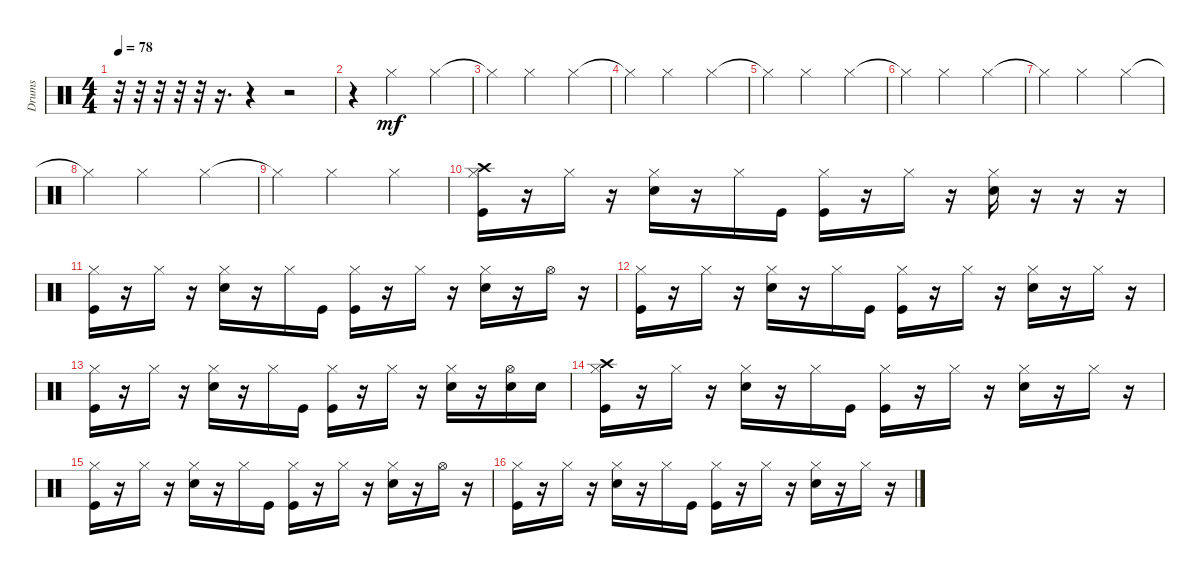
\track ("Drums               " "Drums     ") {instrument percussion}
\staff {score}
\articulation defaults
\ts (4 4)
\tempo 78
\clef neutral
\ks c
r.32{dy mf} r.32 r.32 r.32 r.32 r.16{d} r.4 r.2 |
r.4 "Hi-Hat (closed)".2 "Hi-Hat (closed)".4 |
"Hi-Hat (closed)"{t}.4 "Hi-Hat (closed)".2 "Hi-Hat (closed)".4 |
"Hi-Hat (closed)"{t}.4 "Hi-Hat (closed)".2 "Hi-Hat (closed)".4 |
"Hi-Hat (closed)"{t}.4 "Hi-Hat (closed)".2 "Hi-Hat (closed)".4 |
"Hi-Hat (closed)"{t}.4 "Hi-Hat (closed)".2 "Hi-Hat (closed)".4 |
"Hi-Hat (closed)"{t}.4 "Hi-Hat (closed)".2 "Hi-Hat (closed)".4 |
"Hi-Hat (closed)"{t}.4 "Hi-Hat (closed)".2 "Hi-Hat (closed)".4 |
"Hi-Hat (closed)"{t}.4 "Hi-Hat (closed)".2 "Hi-Hat (closed)".4 |
("Kick (hit)" "Hi-Hat (closed)" "Crash high (hit)").16 r.16 "Hi-Hat (closed)".16 r.16 ("Snare (hit) 2" "Hi-Hat (closed)").16 r.16 "Hi-Hat (closed)".16 "Kick (hit)".16 ("Kick (hit)" "Hi-Hat (closed)").16 r.16 "Hi-Hat (closed)".16 r.16 ("Snare (hit) 2" "Hi-Hat (closed)").16 r.16 r.16 r.16 |
("Kick (hit)" "Hi-Hat (closed)").16 r.16 "Hi-Hat (closed)".16 r.16 ("Snare (hit) 2" "Hi-Hat (closed)").16 r.16 "Hi-Hat (closed)".16 "Kick (hit)".16 ("Kick (hit)" "Hi-Hat (closed)").16 r.16 "Hi-Hat (closed)".16 r.16 ("Snare (hit) 2" "Hi-Hat (closed)").16 r.16 "Hi-Hat (open)".16 r.16 |
("Kick (hit)" "Hi-Hat (closed)").16 r.16 "Hi-Hat (closed)".16 r.16 ("Snare (hit) 2" "Hi-Hat (closed)").16 r.16 "Hi-Hat (closed)".16 "Kick (hit)".16 ("Kick (hit)" "Hi-Hat (closed)").16 r.16 "Hi-Hat (closed)".16 r.16 ("Snare (hit) 2" "Hi-Hat (closed)").16 r.16 "Hi-Hat (closed)".16 r.16 |
("Kick (hit)" "Hi-Hat (closed)").16 r.16 "Hi-Hat (closed)".16 r.16 ("Snare (hit) 2" "Hi-Hat (closed)").16 r.16 "Hi-Hat (closed)".16 "Kick (hit)".16 ("Kick (hit)" "Hi-Hat (closed)").16 r.16 "Hi-Hat (closed)".16 r.16 ("Snare (hit) 2" "Hi-Hat (closed)").16 r.16 ("Snare (hit) 2" "Hi-Hat (open)").16 "Snare (hit) 2".16 |
("Kick (hit)" "Hi-Hat (closed)" "Crash high (hit)").16 r.16 "Hi-Hat (closed)".16 r.16 ("Snare (hit) 2" "Hi-Hat (closed)").16 r.16 "Hi-Hat (closed)".16 "Kick (hit)".16 ("Kick (hit)" "Hi-Hat (closed)").16 r.16 "Hi-Hat (closed)".16 r.16 ("Snare (hit) 2" "Hi-Hat (closed)").16 r.16 "Hi-Hat (closed)".16 r.16 |
("Kick (hit)" "Hi-Hat (closed)").16 r.16 "Hi-Hat (closed)".16 r.16 ("Snare (hit) 2" "Hi-Hat (closed)").16 r.16 "Hi-Hat (closed)".16 "Kick (hit)".16 ("Kick (hit)" "Hi-Hat (closed)").16 r.16 "Hi-Hat (closed)".16 r.16 ("Snare (hit) 2" "Hi-Hat (closed)").16 r.16 "Hi-Hat (open)".16 r.16 |
("Kick (hit)" "Hi-Hat (closed)").16 r.16 "Hi-Hat (closed)".16 r.16 ("Snare (hit) 2" "Hi-Hat (closed)").16 r.16 "Hi-Hat (closed)".16 "Kick (hit)".16 ("Kick (hit)" "Hi-Hat (closed)").16 r.16 "Hi-Hat (closed)".16 r.16 ("Snare (hit) 2" "Hi-Hat (closed)").16 r.16 "Hi-Hat (closed)".16 r.16
